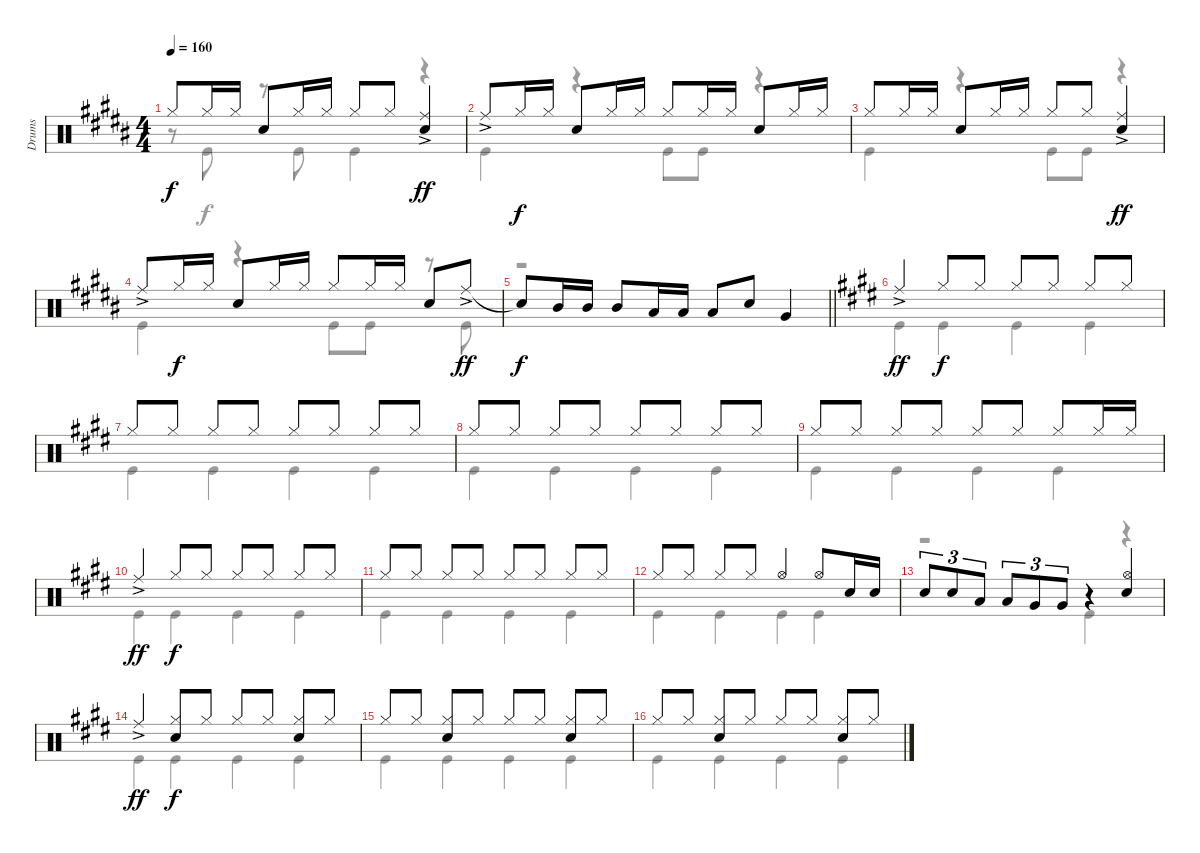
\track ("Drums" "Drums") {instrument percussion}
\staff {score}
\articulation defaults
\voice
\ts (4 4)
\tempo 160
\clef neutral
\ks b "Hi-Hat (closed)".8{dy f} "Hi-Hat (closed)".16 "Hi-Hat (closed)".16 "Snare (hit) 2".8 "Hi-Hat (closed)".16 "Hi-Hat (closed)".16 "Hi-Hat (closed)".8 "Hi-Hat (closed)".8
("Ride (middle)"{ac} "Snare (hit) 2").4{dy ff} |
"Ride (middle)"{ac}.8 "Hi-Hat (closed)".16{dy f} "Hi-Hat (closed)".16 "Snare (hit) 2".8 "Hi-Hat (closed)".16 "Hi-Hat (closed)".16 "Hi-Hat (closed)".8 "Hi-Hat (closed)".16 "Hi-Hat (closed)".16 "Snare (hit) 2".8 "Hi-Hat (closed)".16 "Hi-Hat (closed)".16 |
"Hi-Hat (closed)".8 "Hi-Hat (closed)".16 "Hi-Hat (closed)".16 "Snare (hit) 2".8 "Hi-Hat (closed)".16 "Hi-Hat (closed)".16 "Hi-Hat (closed)".8 "Hi-Hat (closed)".8 ("Ride (middle)"{ac} "Snare (hit) 2").4{dy ff} |
"Ride (middle)"{ac}.8 "Hi-Hat (closed)".16{dy f} "Hi-Hat (closed)".16 "Snare (hit) 2".8 "Hi-Hat (closed)".16 "Hi-Hat (closed)".16 "Hi-Hat (closed)".8 "Hi-Hat (closed)".16 "Hi-Hat (closed)".16 "Snare (hit) 2".8 "Ride (middle)"{ac}.8{dy ff} |
\barLineRight lightlight "Snare (hit)"{t}.8{dy f} "Mid Tom (hit)".16 "Mid Tom (hit)".16 "Mid Tom (hit)".8 "Low Tom (hit)".16 "Low Tom (hit)".16 "Low Tom (hit)".8 "Snare (hit) 2".8 "Very Low Tom (hit)".4
|
\ks e "Ride (middle)"{ac}.4{dy ff} "Hi-Hat (closed)".8{dy f} "Hi-Hat (closed)".8 "Hi-Hat (closed)".8 "Hi-Hat (closed)".8 "Hi-Hat (closed)".8 "Hi-Hat (closed)".8
|
"Hi-Hat (closed)".8 "Hi-Hat (closed)".8 "Hi-Hat (closed)".8 "Hi-Hat (closed)".8 "Hi-Hat (closed)".8 "Hi-Hat (closed)".8 "Hi-Hat (closed)".8 "Hi-Hat (closed)".8 |
"Hi-Hat (closed)".8 "Hi-Hat (closed)".8 "Hi-Hat (closed)".8 "Hi-Hat (closed)".8 "Hi-Hat (closed)".8 "Hi-Hat (closed)".8 "Hi-Hat (closed)".8 "Hi-Hat (closed)".8 |
"Hi-Hat (closed)".8 "Hi-Hat (closed)".8 "Hi-Hat (closed)".8 "Hi-Hat (closed)".8 "Hi-Hat (closed)".8 "Hi-Hat (closed)".8 "Hi-Hat (closed)".8 "Hi-Hat (closed)".16 "Hi-Hat (closed)".16 |
"Ride (middle)"{ac}.4{dy ff} "Hi-Hat (closed)".8{dy f} "Hi-Hat (closed)".8 "Hi-Hat (closed)".8 "Hi-Hat (closed)".8 "Hi-Hat (closed)".8 "Hi-Hat (closed)".8 |
"Hi-Hat (closed)".8 "Hi-Hat (closed)".8 "Hi-Hat (closed)".8 "Hi-Hat (closed)".8 "Hi-Hat (closed)".8 "Hi-Hat (closed)".8 "Hi-Hat (closed)".8 "Hi-Hat (closed)".8 |
"Hi-Hat (closed)".8 "Hi-Hat (closed)".8 "Hi-Hat (closed)".8 "Hi-Hat (closed)".8 "Hi-Hat (open)".4 "Hi-Hat (open)".8 "Snare (hit) 2".16 "Snare (hit) 2".16 |
"Snare (hit) 2".8{tu (3 2)} "Snare (hit) 2".8{tu (3 2)} "Low Tom (hit)".8{tu (3 2)} "Low Tom (hit)".8{tu (3 2)} "Very Low Tom (hit)".8{tu (3 2)} "Very Low Tom (hit)".8{tu (3 2)} r.4 ("Hi-Hat (open)" "Snare (hit) 2").4 |
"Ride (middle)"{ac}.4{dy ff} ("Hi-Hat (closed)" "Snare (hit) 2").8{dy f} "Hi-Hat (closed)".8 "Hi-Hat (closed)".8 "Hi-Hat (closed)".8 ("Hi-Hat (closed)" "Snare (hit) 2").8 "Hi-Hat (closed)".8 |
"Hi-Hat (closed)".8 "Hi-Hat (closed)".8 ("Hi-Hat (closed)" "Snare (hit) 2").8 "Hi-Hat (closed)".8 "Hi-Hat (closed)".8 "Hi-Hat (closed)".8 ("Hi-Hat (closed)" "Snare (hit) 2").8 "Hi-Hat (closed)".8 |
"Hi-Hat (closed)".8 "Hi-Hat (closed)".8 ("Hi-Hat (closed)" "Snare (hit) 2").8 "Hi-Hat (closed)".8 "Hi-Hat (closed)".8 "Hi-Hat (closed)".8 ("Hi-Hat (closed)" "Snare (hit) 2").8 "Hi-Hat (closed)".8
\voice
\clef neutral
\ottava regular
\simile none
\ks b
r.8{dy f} "Kick (hit)".8 r.8 "Kick (hit)".8 "Kick (hit)".4 r.4 |
"Kick (hit)".4 r.4 "Kick (hit)".8 "Kick (hit)".8 r.4 |
"Kick (hit)".4 r.4 "Kick (hit)".8 "Kick (hit)".8 r.4 |
"Kick (hit)".4 r.4 "Kick (hit)".8 "Kick (hit)".8 r.8 "Kick (hit)".8 |
\barLineRight lightlight
r.1 |
\ks e "Kick (hit)".4 "Kick (hit)".4 "Kick (hit)".4 "Kick (hit)".4
|
"Kick (hit)".4 "Kick (hit)".4 "Kick (hit)".4 "Kick (hit)".4 |
"Kick (hit)".4 "Kick (hit)".4 "Kick (hit)".4 "Kick (hit)".4 |
"Kick (hit)".4 "Kick (hit)".4 "Kick (hit)".4 "Kick (hit)".4 |
"Kick (hit)".4 "Kick (hit)".4 "Kick (hit)".4 "Kick (hit)".4 |
"Kick (hit)".4 "Kick (hit)".4 "Kick (hit)".4 "Kick (hit)".4 |
"Kick (hit)".4 "Kick (hit)".4 "Kick (hit)".4 "Kick (hit)".4 |
r.2 "Kick (hit)".4 r.4 |
"Kick (hit)".4 "Kick (hit)".4 "Kick (hit)".4 "Kick (hit)".4 |
"Kick (hit)".4 "Kick (hit)".4 "Kick (hit)".4 "Kick (hit)".4 |
"Kick (hit)".4 "Kick (hit)".4 "Kick (hit)".4 "Kick (hit)".4
